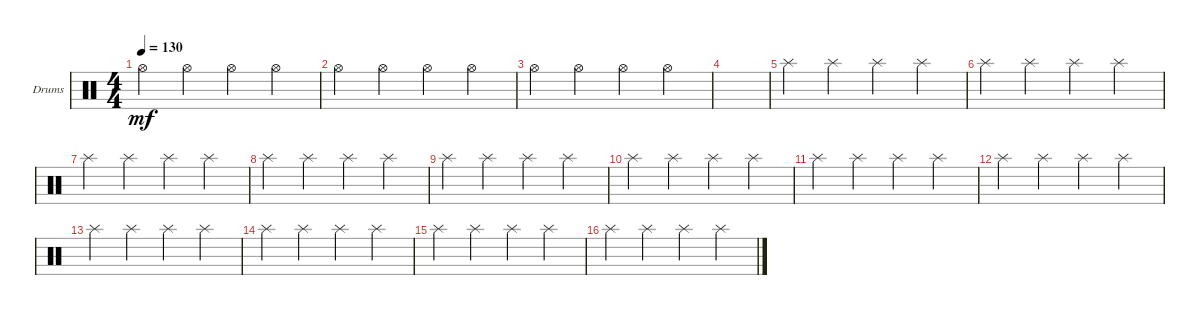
\defaultSystemsLayout 4
\bracketExtendMode groupsimilarinstruments
\firstSystemTrackNameOrientation horizontal
\otherSystemsTrackNameOrientation horizontal
\track ("Drumkit" "Drums") {instrument percussion}
\staff {score}
\articulation defaults
\ts (4 4)
\tempo 130
\clef neutral
\scale
0.333333
\ks c "Hi-Hat (open)".4{dy mf} "Hi-Hat (open)".4 "Hi-Hat (open)".4 "Hi-Hat (open)".4
|
\scale
0.333333 "Hi-Hat (open)".4 "Hi-Hat (open)".4 "Hi-Hat (open)".4 "Hi-Hat (open)".4 |
\scale
0.333333 "Hi-Hat (open)".4 "Hi-Hat (open)".4 "Hi-Hat (open)".4 "Hi-Hat (open)".4 |
\scale
0.333333 |
\scale
0.333333 "Splash (hit)".4 "Splash (hit)".4 "Splash (hit)".4 "Splash (hit)".4 |
\scale
0.333333 "Splash (hit)".4 "Splash (hit)".4 "Splash (hit)".4 "Splash (hit)".4 |
\scale
0.333333 "Splash (hit)".4 "Splash (hit)".4 "Splash (hit)".4 "Splash (hit)".4 |
\scale
0.333333 "Splash (hit)".4 "Splash (hit)".4 "Splash (hit)".4 "Splash (hit)".4 |
\scale
0.333333 "Splash (hit)".4 "Splash (hit)".4 "Splash (hit)".4 "Splash (hit)".4 |
\scale
0.333333 "Splash (hit)".4 "Splash (hit)".4 "Splash (hit)".4 "Splash (hit)".4 |
\scale
0.333333 "Splash (hit)".4 "Splash (hit)".4 "Splash (hit)".4 "Splash (hit)".4 |
\scale
0.333333 "Splash (hit)".4 "Splash (hit)".4 "Splash (hit)".4 "Splash (hit)".4 |
\scale
0.333333 "Splash (hit)".4 "Splash (hit)".4 "Splash (hit)".4 "Splash (hit)".4 |
\scale
0.333333 "Splash (hit)".4 "Splash (hit)".4 "Splash (hit)".4 "Splash (hit)".4 |
\scale
0.333333 "Splash (hit)".4 "Splash (hit)".4 "Splash (hit)".4 "Splash (hit)".4 |
\scale
0.333333 "Splash (hit)".4 "Splash (hit)".4 "Splash (hit)".4 "Splash (hit)".4
